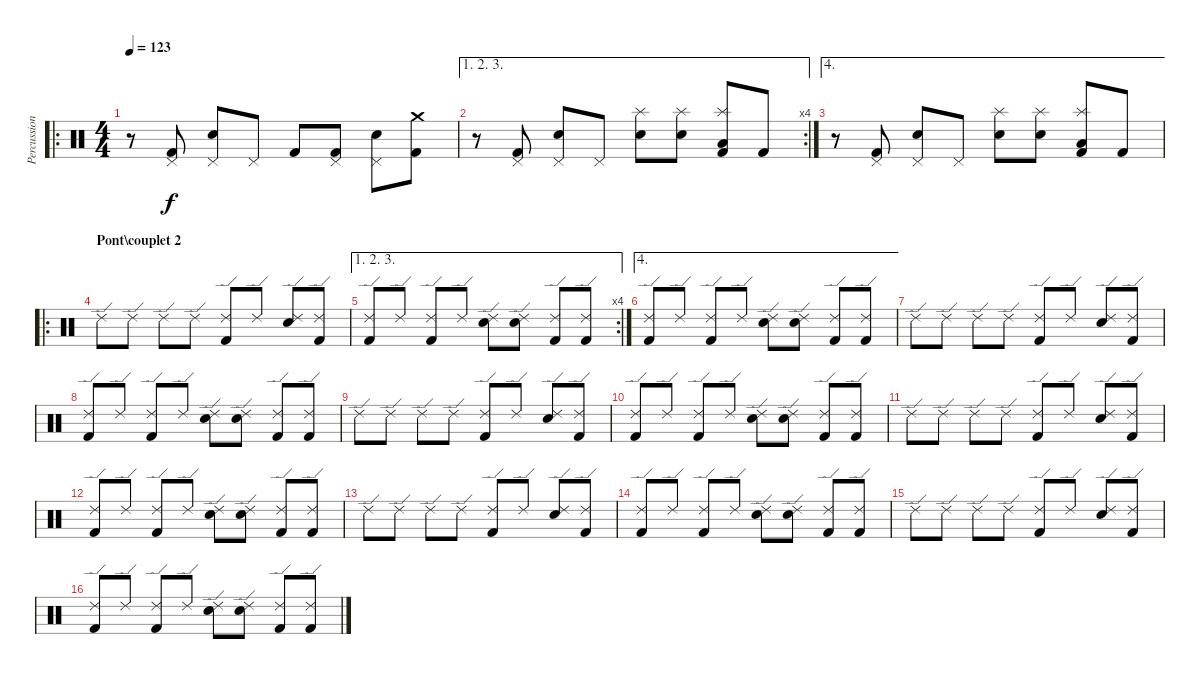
\track ("Percussions" "Percussion") {instrument percussion}
\staff {score}
\articulation defaults
\ro
\ts (4 4)
\tempo 123
\clef neutral
\ks c
r.8{dy f} ("Pedal Hi-Hat (hit)" "Kick (hit) 2").8 ("Pedal Hi-Hat (hit)" "Electric Snare (hit)").8 "Pedal Hi-Hat (hit)".8 "Kick (hit) 2".8 ("Pedal Hi-Hat (hit)" "Kick (hit) 2").8 ("Pedal Hi-Hat (hit)" "Electric Snare (hit)").8 ("Crash medium (hit)" "Kick (hit) 2").8 |
\ae (1 2 3)
\rc 4
r.8 ("Pedal Hi-Hat (hit)" "Kick (hit) 2").8 ("Pedal Hi-Hat (hit)" "Electric Snare (hit)").8 "Pedal Hi-Hat (hit)".8 ("Splash (hit)" "Electric Snare (hit)").8 ("Splash (hit)" "Electric Snare (hit)").8 ("Splash (hit)" "Low Tom (hit)" "Kick (hit) 2").8 "Kick (hit) 2".8 |
\ae 4
r.8 ("Pedal Hi-Hat (hit)" "Kick (hit) 2").8 ("Pedal Hi-Hat (hit)" "Electric Snare (hit)").8 "Pedal Hi-Hat (hit)".8 ("Splash (hit)" "Electric Snare (hit)").8 ("Splash (hit)" "Electric Snare (hit)").8 ("Splash (hit)" "Low Tom (hit)" "Kick (hit) 2").8 "Kick (hit) 2".8 |
\ro
\section ("" "Pont\\couplet 2")
"Ride (edge) 2".8 "Ride (edge) 2".8 "Ride (edge) 2".8 "Ride (edge) 2".8 ("Ride (edge) 2" "Kick (hit) 2").8 "Ride (edge) 2".8 ("Ride (edge) 2" "Electric Snare (hit)").8 ("Ride (edge) 2" "Kick (hit) 2").8 |
\ae (1 2 3)
\rc 4
("Ride (edge) 2" "Kick (hit) 2").8 "Ride (edge) 2".8 ("Ride (edge) 2" "Kick (hit) 2").8 "Ride (edge) 2".8 ("Ride (edge) 2" "Electric Snare (hit)").8 ("Ride (edge) 2" "Electric Snare (hit)").8 ("Ride (edge) 2" "Kick (hit) 2").8 ("Ride (edge) 2" "Kick (hit) 2").8 |
\ae 4
("Ride (edge) 2" "Kick (hit) 2").8 "Ride (edge) 2".8 ("Ride (edge) 2" "Kick (hit) 2").8 "Ride (edge) 2".8 ("Ride (edge) 2" "Electric Snare (hit)").8 ("Ride (edge) 2" "Electric Snare (hit)").8 ("Ride (edge) 2" "Kick (hit) 2").8 ("Ride (edge) 2" "Kick (hit) 2").8 |
"Ride (edge) 2".8 "Ride (edge) 2".8 "Ride (edge) 2".8 "Ride (edge) 2".8 ("Ride (edge) 2" "Kick (hit) 2").8 "Ride (edge) 2".8 ("Ride (edge) 2" "Electric Snare (hit)").8 ("Ride (edge) 2" "Kick (hit) 2").8 |
("Ride (edge) 2" "Kick (hit) 2").8 "Ride (edge) 2".8 ("Ride (edge) 2" "Kick (hit) 2").8 "Ride (edge) 2".8 ("Ride (edge) 2" "Electric Snare (hit)").8 ("Ride (edge) 2" "Electric Snare (hit)").8 ("Ride (edge) 2" "Kick (hit) 2").8 ("Ride (edge) 2" "Kick (hit) 2").8 |
"Ride (edge) 2".8 "Ride (edge) 2".8 "Ride (edge) 2".8 "Ride (edge) 2".8 ("Ride (edge) 2" "Kick (hit) 2").8 "Ride (edge) 2".8 ("Ride (edge) 2" "Electric Snare (hit)").8 ("Ride (edge) 2" "Kick (hit) 2").8 |
("Ride (edge) 2" "Kick (hit) 2").8 "Ride (edge) 2".8 ("Ride (edge) 2" "Kick (hit) 2").8 "Ride (edge) 2".8 ("Ride (edge) 2" "Electric Snare (hit)").8 ("Ride (edge) 2" "Electric Snare (hit)").8 ("Ride (edge) 2" "Kick (hit) 2").8 ("Ride (edge) 2" "Kick (hit) 2").8 |
"Ride (edge) 2".8 "Ride (edge) 2".8 "Ride (edge) 2".8 "Ride (edge) 2".8 ("Ride (edge) 2" "Kick (hit) 2").8 "Ride (edge) 2".8 ("Ride (edge) 2" "Electric Snare (hit)").8 ("Ride (edge) 2" "Kick (hit) 2").8 |
("Ride (edge) 2" "Kick (hit) 2").8 "Ride (edge) 2".8 ("Ride (edge) 2" "Kick (hit) 2").8 "Ride (edge) 2".8 ("Ride (edge) 2" "Electric Snare (hit)").8 ("Ride (edge) 2" "Electric Snare (hit)").8 ("Ride (edge) 2" "Kick (hit) 2").8 ("Ride (edge) 2" "Kick (hit) 2").8 |
"Ride (edge) 2".8 "Ride (edge) 2".8 "Ride (edge) 2".8 "Ride (edge) 2".8 ("Ride (edge) 2" "Kick (hit) 2").8 "Ride (edge) 2".8 ("Ride (edge) 2" "Electric Snare (hit)").8 ("Ride (edge) 2" "Kick (hit) 2").8 |
("Ride (edge) 2" "Kick (hit) 2").8 "Ride (edge) 2".8 ("Ride (edge) 2" "Kick (hit) 2").8 "Ride (edge) 2".8 ("Ride (edge) 2" "Electric Snare (hit)").8 ("Ride (edge) 2" "Electric Snare (hit)").8 ("Ride (edge) 2" "Kick (hit) 2").8 ("Ride (edge) 2" "Kick (hit) 2").8 |
"Ride (edge) 2".8 "Ride (edge) 2".8 "Ride (edge) 2".8 "Ride (edge) 2".8 ("Ride (edge) 2" "Kick (hit) 2").8 "Ride (edge) 2".8 ("Ride (edge) 2" "Electric Snare (hit)").8 ("Ride (edge) 2" "Kick (hit) 2").8 |
("Ride (edge) 2" "Kick (hit) 2").8 "Ride (edge) 2".8 ("Ride (edge) 2" "Kick (hit) 2").8 "Ride (edge) 2".8 ("Ride (edge) 2" "Electric Snare (hit)").8 ("Ride (edge) 2" "Electric Snare (hit)").8 ("Ride (edge) 2" "Kick (hit) 2").8 ("Ride (edge) 2" "Kick (hit) 2").8
